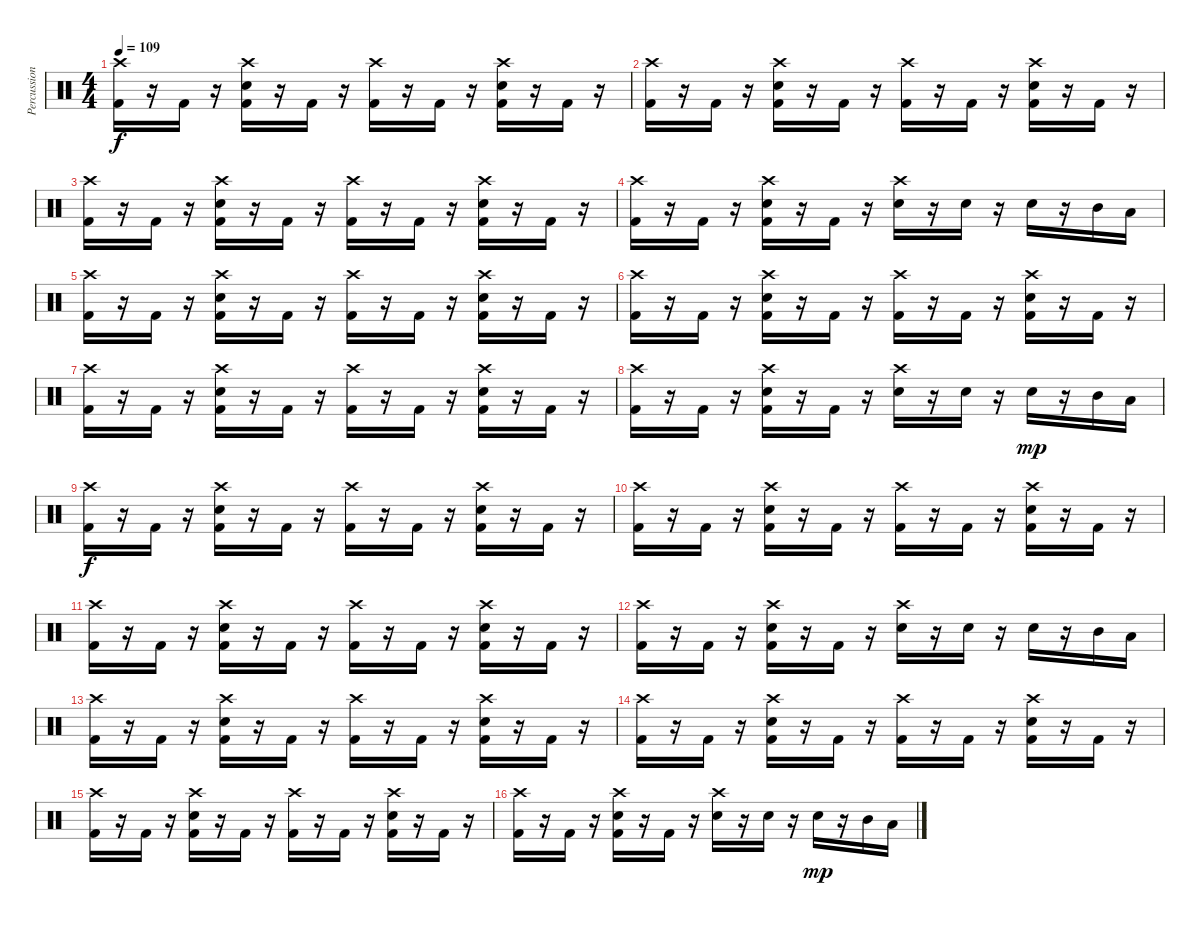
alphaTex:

\track ("Percussion" "Percussion") {instrument percussion}
\staff {score}
\articulation defaults
\ts (4 4)
\tempo 109
\clef neutral
\ks c
("Crash high (hit)" "Kick (hit) 2").16{dy f} r.16 "Kick (hit) 2".16 r.16 ("Crash high (hit)" "Snare (hit) 2" "Kick (hit) 2").16 r.16 "Kick (hit) 2".16 r.16 ("Crash high (hit)" "Kick (hit) 2").16 r.16 "Kick (hit) 2".16 r.16 ("Crash high (hit)" "Snare (hit) 2" "Kick (hit) 2").16 r.16 "Kick (hit) 2".16 r.16 |
("Crash high (hit)" "Kick (hit) 2").16 r.16 "Kick (hit) 2".16 r.16 ("Crash high (hit)" "Snare (hit) 2" "Kick (hit) 2").16 r.16 "Kick (hit) 2".16 r.16 ("Crash high (hit)" "Kick (hit) 2").16 r.16 "Kick (hit) 2".16 r.16 ("Crash high (hit)" "Snare (hit) 2" "Kick (hit) 2").16 r.16 "Kick (hit) 2".16 r.16 |
("Crash high (hit)" "Kick (hit) 2").16 r.16 "Kick (hit) 2".16 r.16 ("Crash high (hit)" "Snare (hit) 2" "Kick (hit) 2").16 r.16 "Kick (hit) 2".16 r.16 ("Crash high (hit)" "Kick (hit) 2").16 r.16 "Kick (hit) 2".16 r.16 ("Crash high (hit)" "Snare (hit) 2" "Kick (hit) 2").16 r.16 "Kick (hit) 2".16 r.16 |
("Crash high (hit)" "Kick (hit) 2").16 r.16 "Kick (hit) 2".16 r.16 ("Crash high (hit)" "Snare (hit) 2" "Kick (hit) 2").16 r.16 "Kick (hit) 2".16 r.16 ("Crash high (hit)" "Snare (hit) 2").16 r.16 "Snare (hit) 2".16 r.16 "Snare (hit) 2".16 r.16 "Mid Tom (hit)".16 "Low Tom (hit)".16 |
("Crash high (hit)" "Kick (hit) 2").16 r.16 "Kick (hit) 2".16 r.16 ("Crash high (hit)" "Snare (hit) 2" "Kick (hit) 2").16 r.16 "Kick (hit) 2".16 r.16 ("Crash high (hit)" "Kick (hit) 2").16 r.16 "Kick (hit) 2".16 r.16 ("Crash high (hit)" "Snare (hit) 2" "Kick (hit) 2").16 r.16 "Kick (hit) 2".16 r.16 |
("Crash high (hit)" "Kick (hit) 2").16 r.16 "Kick (hit) 2".16 r.16 ("Crash high (hit)" "Snare (hit) 2" "Kick (hit) 2").16 r.16 "Kick (hit) 2".16 r.16 ("Crash high (hit)" "Kick (hit) 2").16 r.16 "Kick (hit) 2".16 r.16 ("Crash high (hit)" "Snare (hit) 2" "Kick (hit) 2").16 r.16 "Kick (hit) 2".16 r.16 |
("Crash high (hit)" "Kick (hit) 2").16 r.16 "Kick (hit) 2".16 r.16 ("Crash high (hit)" "Snare (hit) 2" "Kick (hit) 2").16 r.16 "Kick (hit) 2".16 r.16 ("Crash high (hit)" "Kick (hit) 2").16 r.16 "Kick (hit) 2".16 r.16 ("Crash high (hit)" "Snare (hit) 2" "Kick (hit) 2").16 r.16 "Kick (hit) 2".16 r.16 |
("Crash high (hit)" "Kick (hit) 2").16 r.16 "Kick (hit) 2".16 r.16 ("Crash high (hit)" "Snare (hit) 2" "Kick (hit) 2").16 r.16 "Kick (hit) 2".16 r.16 ("Crash high (hit)" "Snare (hit) 2").16 r.16 "Snare (hit) 2".16 r.16 "Snare (hit) 2".16{dy mp} r.16 "Mid Tom (hit)".16 "Low Tom (hit)".16 |
("Crash high (hit)" "Kick (hit) 2").16{dy f} r.16 "Kick (hit) 2".16 r.16 ("Crash high (hit)" "Snare (hit) 2" "Kick (hit) 2").16 r.16 "Kick (hit) 2".16 r.16 ("Crash high (hit)" "Kick (hit) 2").16 r.16 "Kick (hit) 2".16 r.16 ("Crash high (hit)" "Snare (hit) 2" "Kick (hit) 2").16 r.16 "Kick (hit) 2".16 r.16 |
("Crash high (hit)" "Kick (hit) 2").16 r.16 "Kick (hit) 2".16 r.16 ("Crash high (hit)" "Snare (hit) 2" "Kick (hit) 2").16 r.16 "Kick (hit) 2".16 r.16 ("Crash high (hit)" "Kick (hit) 2").16 r.16 "Kick (hit) 2".16 r.16 ("Crash high (hit)" "Snare (hit) 2" "Kick (hit) 2").16 r.16 "Kick (hit) 2".16 r.16 |
("Crash high (hit)" "Kick (hit) 2").16 r.16 "Kick (hit) 2".16 r.16 ("Crash high (hit)" "Snare (hit) 2" "Kick (hit) 2").16 r.16 "Kick (hit) 2".16 r.16 ("Crash high (hit)" "Kick (hit) 2").16 r.16 "Kick (hit) 2".16 r.16 ("Crash high (hit)" "Snare (hit) 2" "Kick (hit) 2").16 r.16 "Kick (hit) 2".16 r.16 |
("Crash high (hit)" "Kick (hit) 2").16 r.16 "Kick (hit) 2".16 r.16 ("Crash high (hit)" "Snare (hit) 2" "Kick (hit) 2").16 r.16 "Kick (hit) 2".16 r.16 ("Crash high (hit)" "Snare (hit) 2").16 r.16 "Snare (hit) 2".16 r.16 "Snare (hit) 2".16 r.16 "Mid Tom (hit)".16 "Low Tom (hit)".16 |
("Crash high (hit)" "Kick (hit) 2").16 r.16 "Kick (hit) 2".16 r.16 ("Crash high (hit)" "Snare (hit) 2" "Kick (hit) 2").16 r.16 "Kick (hit) 2".16 r.16 ("Crash high (hit)" "Kick (hit) 2").16 r.16 "Kick (hit) 2".16 r.16 ("Crash high (hit)" "Snare (hit) 2" "Kick (hit) 2").16 r.16 "Kick (hit) 2".16 r.16 |
("Crash high (hit)" "Kick (hit) 2").16 r.16 "Kick (hit) 2".16 r.16 ("Crash high (hit)" "Snare (hit) 2" "Kick (hit) 2").16 r.16 "Kick (hit) 2".16 r.16 ("Crash high (hit)" "Kick (hit) 2").16 r.16 "Kick (hit) 2".16 r.16 ("Crash high (hit)" "Snare (hit) 2" "Kick (hit) 2").16 r.16 "Kick (hit) 2".16 r.16 |
("Crash high (hit)" "Kick (hit) 2").16 r.16 "Kick (hit) 2".16 r.16 ("Crash high (hit)" "Snare (hit) 2" "Kick (hit) 2").16 r.16 "Kick (hit) 2".16 r.16 ("Crash high (hit)" "Kick (hit) 2").16 r.16 "Kick (hit) 2".16 r.16 ("Crash high (hit)" "Snare (hit) 2" "Kick (hit) 2").16 r.16 "Kick (hit) 2".16 r.16 |
("Crash high (hit)" "Kick (hit) 2").16 r.16 "Kick (hit) 2".16 r.16 ("Crash high (hit)" "Snare (hit) 2" "Kick (hit) 2").16 r.16 "Kick (hit) 2".16 r.16 ("Crash high (hit)" "Snare (hit) 2").16 r.16 "Snare (hit) 2".16 r.16 "Snare (hit) 2".16{dy mp} r.16 "Mid Tom (hit)".16 "Low Tom (hit)".16
